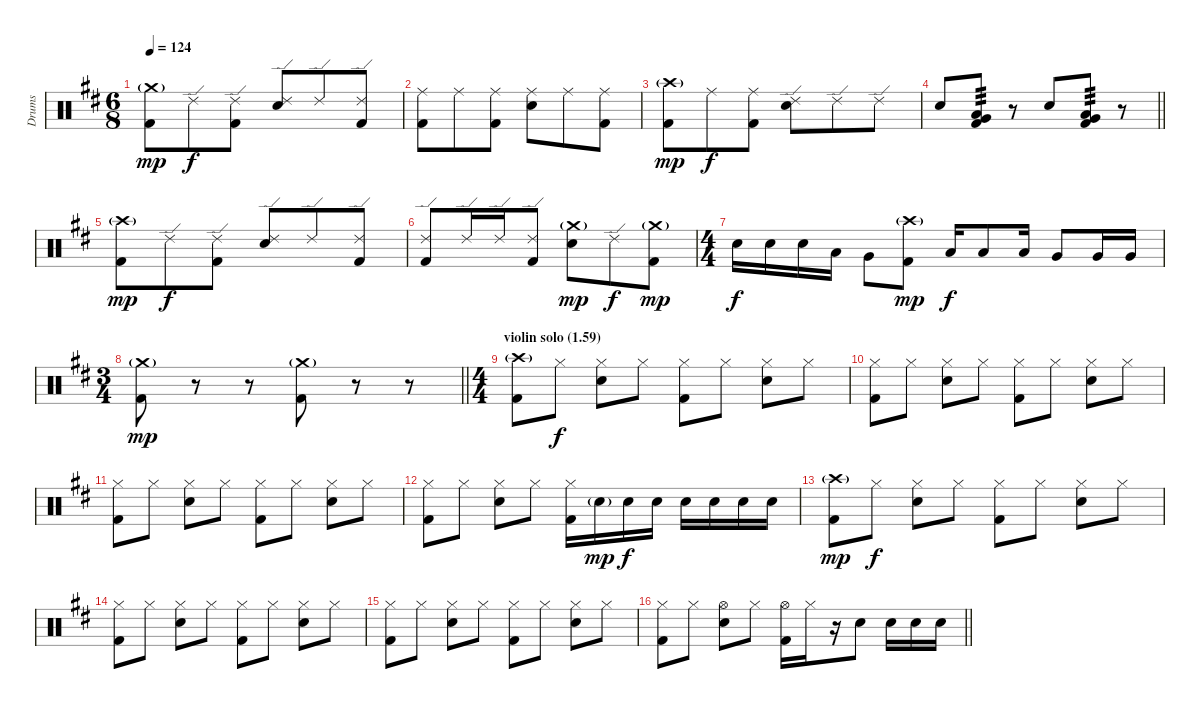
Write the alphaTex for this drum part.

\track ("Drums" "Drums") {instrument percussion}
\staff {score}
\articulation defaults
\ts (6 8)
\tempo 124
\clef neutral
\ks d
("Crash medium (hit)"{g} "Kick (hit) 2").8{dy mp} "Ride (edge) 2".8{dy f} ("Ride (edge) 2" "Kick (hit) 2").8 ("Ride (edge) 2" "Electric Snare (hit)").8 "Ride (edge) 2".8 ("Ride (edge) 2" "Kick (hit) 2").8 |
("Ride (middle)" "Kick (hit) 2").8 "Ride (middle)".8 ("Ride (middle)" "Kick (hit) 2").8 ("Ride (middle)" "Electric Snare (hit)").8 "Ride (middle)".8 ("Ride (middle)" "Kick (hit) 2").8 |
("Crash high (hit)"{g} "Kick (hit) 2").8{dy mp} "Ride (middle)".8{dy f} ("Ride (middle)" "Kick (hit) 2").8 ("Ride (edge) 2" "Electric Snare (hit)").8 "Ride (edge) 2".8 "Ride (edge) 2".8 |
\barLineRight lightlight "Electric Snare (hit)".8
("Low Tom (hit)" "Very Low Tom (hit)" "Kick (hit) 2").8{tp 3} r.8 "Electric Snare (hit)".8 ("Low Tom (hit)" "Very Low Tom (hit)" "Kick (hit) 2").8{tp 3} r.8 |
("Crash high (hit)"{g} "Kick (hit) 2").8{dy mp} "Ride (edge) 2".8{dy f} ("Ride (edge) 2" "Kick (hit) 2").8 ("Ride (edge) 2" "Electric Snare (hit)").8 "Ride (edge) 2".8 ("Ride (edge) 2" "Kick (hit) 2").8 |
("Ride (edge) 2" "Kick (hit) 2").8 "Ride (edge) 2".16 "Ride (edge) 2".16 ("Ride (edge) 2" "Kick (hit) 2").8 ("Crash medium (hit)"{g} "Electric Snare (hit)").8{dy mp} "Ride (edge) 2".8{dy f} ("Crash medium (hit)"{g} "Kick (hit) 2").8{dy mp} |
\ts (4 4)
"Electric Snare (hit)".16{dy f} "Electric Snare (hit)".16 "Electric Snare (hit)".16 "Low Tom (hit)".16 "Very Low Tom (hit)".8 ("Crash high (hit)"{g} "Kick (hit) 2").8{dy mp} "Low Tom (hit)".16{dy f} "Low Tom (hit)".8 "Low Tom (hit)".16 "Very Low Tom (hit)".8 "Very Low Tom (hit)".16 "Very Low Tom (hit)".16 |
\ts (3 4)
\barLineRight lightlight
("Crash medium (hit)"{g} "Kick (hit) 2").8{dy mp} r.8 r.8 ("Crash medium (hit)"{g} "Kick (hit) 2").8 r.8 r.8 |
\ts (4 4)
\section ("" "violin solo (1.59)")
("Crash high (hit)"{g} "Kick (hit) 2").8 "Hi-Hat (closed)".8{dy f} ("Hi-Hat (closed)" "Electric Snare (hit)").8 "Hi-Hat (closed)".8 ("Hi-Hat (closed)" "Kick (hit) 2").8 "Hi-Hat (closed)".8 ("Hi-Hat (closed)" "Electric Snare (hit)").8 "Hi-Hat (closed)".8 |
("Hi-Hat (closed)" "Kick (hit) 2").8 "Hi-Hat (closed)".8 ("Hi-Hat (closed)" "Electric Snare (hit)").8 "Hi-Hat (closed)".8 ("Hi-Hat (closed)" "Kick (hit) 2").8 "Hi-Hat (closed)".8 ("Hi-Hat (closed)" "Electric Snare (hit)").8 "Hi-Hat (closed)".8 |
("Hi-Hat (closed)" "Kick (hit) 2").8 "Hi-Hat (closed)".8 ("Hi-Hat (closed)" "Electric Snare (hit)").8 "Hi-Hat (closed)".8 ("Hi-Hat (closed)" "Kick (hit) 2").8 "Hi-Hat (closed)".8 ("Hi-Hat (closed)" "Electric Snare (hit)").8 "Hi-Hat (closed)".8 |
("Hi-Hat (closed)" "Kick (hit) 2").8 "Hi-Hat (closed)".8 ("Hi-Hat (closed)" "Electric Snare (hit)").8 "Hi-Hat (closed)".8 ("Hi-Hat (closed)" "Kick (hit) 2").16 "Electric Snare (hit)"{g}.16{dy mp} "Electric Snare (hit)".16{dy f} "Electric Snare (hit)".16 "Electric Snare (hit)".16 "Electric Snare (hit)".16 "Electric Snare (hit)".16 "Electric Snare (hit)".16 |
("Crash high (hit)"{g} "Kick (hit) 2").8{dy mp} "Hi-Hat (closed)".8{dy f} ("Hi-Hat (closed)" "Electric Snare (hit)").8 "Hi-Hat (closed)".8 ("Hi-Hat (closed)" "Kick (hit) 2").8 "Hi-Hat (closed)".8 ("Hi-Hat (closed)" "Electric Snare (hit)").8 "Hi-Hat (closed)".8 |
("Hi-Hat (closed)" "Kick (hit) 2").8 "Hi-Hat (closed)".8 ("Hi-Hat (closed)" "Electric Snare (hit)").8 "Hi-Hat (closed)".8 ("Hi-Hat (closed)" "Kick (hit) 2").8 "Hi-Hat (closed)".8 ("Hi-Hat (closed)" "Electric Snare (hit)").8 "Hi-Hat (closed)".8 |
("Hi-Hat (closed)" "Kick (hit) 2").8 "Hi-Hat (closed)".8 ("Hi-Hat (closed)" "Electric Snare (hit)").8 "Hi-Hat (closed)".8 ("Hi-Hat (closed)" "Kick (hit) 2").8 "Hi-Hat (closed)".8 ("Hi-Hat (closed)" "Electric Snare (hit)").8 "Hi-Hat (closed)".8 |
\barLineRight lightlight
("Hi-Hat (closed)" "Kick (hit) 2").8 "Hi-Hat (closed)".8 ("Hi-Hat (open)" "Electric Snare (hit)").8 "Hi-Hat (closed)".8 ("Hi-Hat (open)" "Kick (hit) 2").16 "Hi-Hat (closed)".16 r.16 "Electric Snare (hit)".8 "Electric Snare (hit)".16 "Electric Snare (hit)".16 "Electric Snare (hit)".16
